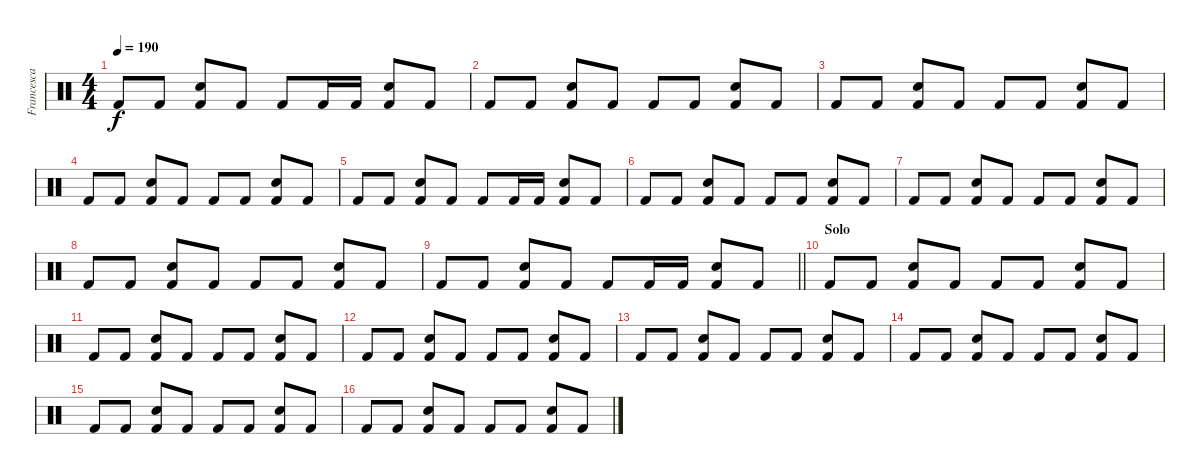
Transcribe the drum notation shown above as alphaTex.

\track ("Francesca Tresca" "Francesca ") {instrument percussion}
\staff {score}
\articulation defaults
\ts (4 4)
\tempo 190
\clef neutral
\ks c "Kick (hit) 2".8{dy f} "Kick (hit) 2".8
("Snare (hit) 2" "Kick (hit) 2").8 "Kick (hit) 2".8 "Kick (hit) 2".8 "Kick (hit) 2".16 "Kick (hit) 2".16 ("Snare (hit) 2" "Kick (hit) 2").8 "Kick (hit) 2".8 |
"Kick (hit) 2".8 "Kick (hit) 2".8 ("Snare (hit) 2" "Kick (hit) 2").8 "Kick (hit) 2".8 "Kick (hit) 2".8 "Kick (hit) 2".8 ("Snare (hit) 2" "Kick (hit) 2").8 "Kick (hit) 2".8 |
"Kick (hit) 2".8 "Kick (hit) 2".8 ("Snare (hit) 2" "Kick (hit) 2").8 "Kick (hit) 2".8 "Kick (hit) 2".8 "Kick (hit) 2".8 ("Snare (hit) 2" "Kick (hit) 2").8 "Kick (hit) 2".8 |
"Kick (hit) 2".8 "Kick (hit) 2".8 ("Snare (hit) 2" "Kick (hit) 2").8 "Kick (hit) 2".8 "Kick (hit) 2".8 "Kick (hit) 2".8 ("Snare (hit) 2" "Kick (hit) 2").8 "Kick (hit) 2".8 |
"Kick (hit) 2".8 "Kick (hit) 2".8 ("Snare (hit) 2" "Kick (hit) 2").8 "Kick (hit) 2".8 "Kick (hit) 2".8 "Kick (hit) 2".16 "Kick (hit) 2".16 ("Snare (hit) 2" "Kick (hit) 2").8 "Kick (hit) 2".8 |
"Kick (hit) 2".8 "Kick (hit) 2".8 ("Snare (hit) 2" "Kick (hit) 2").8 "Kick (hit) 2".8 "Kick (hit) 2".8 "Kick (hit) 2".8 ("Snare (hit) 2" "Kick (hit) 2").8 "Kick (hit) 2".8 |
"Kick (hit) 2".8 "Kick (hit) 2".8 ("Snare (hit) 2" "Kick (hit) 2").8 "Kick (hit) 2".8 "Kick (hit) 2".8 "Kick (hit) 2".8 ("Snare (hit) 2" "Kick (hit) 2").8 "Kick (hit) 2".8 |
"Kick (hit) 2".8 "Kick (hit) 2".8 ("Snare (hit) 2" "Kick (hit) 2").8 "Kick (hit) 2".8 "Kick (hit) 2".8 "Kick (hit) 2".8 ("Snare (hit) 2" "Kick (hit) 2").8 "Kick (hit) 2".8 |
\barLineRight lightlight "Kick (hit) 2".8 "Kick (hit) 2".8
("Snare (hit) 2" "Kick (hit) 2").8 "Kick (hit) 2".8 "Kick (hit) 2".8 "Kick (hit) 2".16 "Kick (hit) 2".16 ("Snare (hit) 2" "Kick (hit) 2").8 "Kick (hit) 2".8 |
\section ("" "Solo")
"Kick (hit) 2".8 "Kick (hit) 2".8 ("Snare (hit) 2" "Kick (hit) 2").8 "Kick (hit) 2".8 "Kick (hit) 2".8 "Kick (hit) 2".8 ("Snare (hit) 2" "Kick (hit) 2").8 "Kick (hit) 2".8 |
"Kick (hit) 2".8 "Kick (hit) 2".8 ("Snare (hit) 2" "Kick (hit) 2").8 "Kick (hit) 2".8 "Kick (hit) 2".8 "Kick (hit) 2".8 ("Snare (hit) 2" "Kick (hit) 2").8 "Kick (hit) 2".8 |
"Kick (hit) 2".8 "Kick (hit) 2".8 ("Snare (hit) 2" "Kick (hit) 2").8 "Kick (hit) 2".8 "Kick (hit) 2".8 "Kick (hit) 2".8 ("Snare (hit) 2" "Kick (hit) 2").8 "Kick (hit) 2".8 |
"Kick (hit) 2".8 "Kick (hit) 2".8 ("Snare (hit) 2" "Kick (hit) 2").8 "Kick (hit) 2".8 "Kick (hit) 2".8 "Kick (hit) 2".8 ("Snare (hit) 2" "Kick (hit) 2").8 "Kick (hit) 2".8 |
"Kick (hit) 2".8 "Kick (hit) 2".8 ("Snare (hit) 2" "Kick (hit) 2").8 "Kick (hit) 2".8 "Kick (hit) 2".8 "Kick (hit) 2".8 ("Snare (hit) 2" "Kick (hit) 2").8 "Kick (hit) 2".8 |
"Kick (hit) 2".8 "Kick (hit) 2".8 ("Snare (hit) 2" "Kick (hit) 2").8 "Kick (hit) 2".8 "Kick (hit) 2".8 "Kick (hit) 2".8 ("Snare (hit) 2" "Kick (hit) 2").8 "Kick (hit) 2".8 |
"Kick (hit) 2".8 "Kick (hit) 2".8 ("Snare (hit) 2" "Kick (hit) 2").8 "Kick (hit) 2".8 "Kick (hit) 2".8 "Kick (hit) 2".8 ("Snare (hit) 2" "Kick (hit) 2").8 "Kick (hit) 2".8
